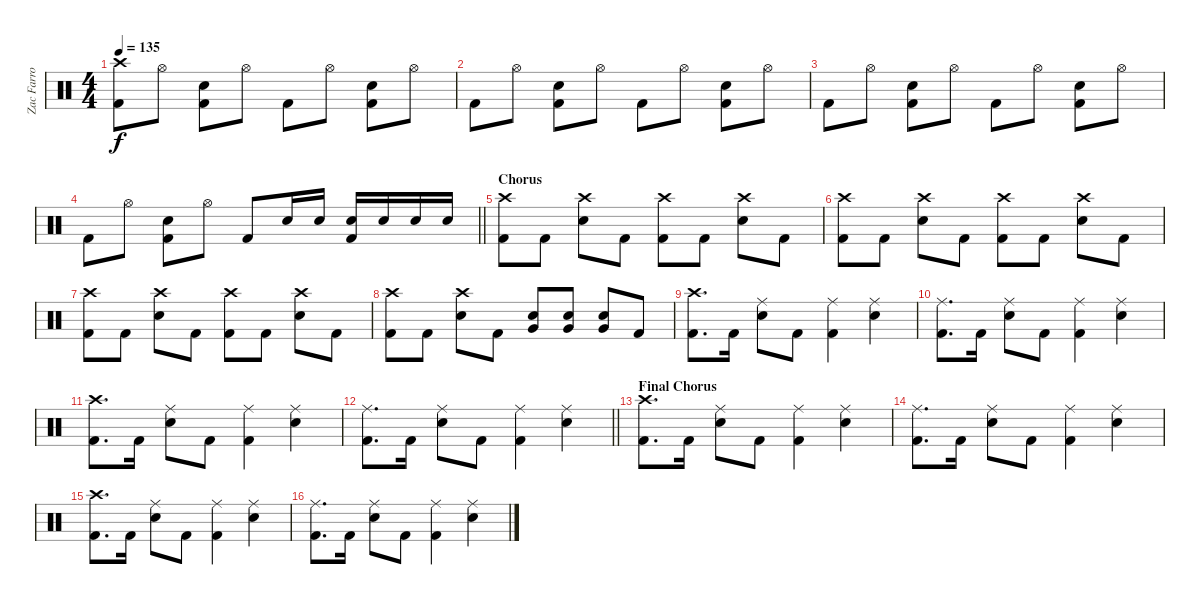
\track ("Zac Farro (Percussion)" "Zac Farro ") {instrument percussion}
\staff {score}
\articulation defaults
\ts (4 4)
\tempo 135
\clef neutral
\ks c
("Crash high (hit)" "Kick (hit) 2").8{dy f} "Hi-Hat (open)".8 ("Snare (hit) 2" "Kick (hit) 2").8 "Hi-Hat (open)".8 "Kick (hit) 2".8 "Hi-Hat (open)".8 ("Snare (hit) 2" "Kick (hit) 2").8 "Hi-Hat (open)".8 |
"Kick (hit) 2".8 "Hi-Hat (open)".8 ("Snare (hit) 2" "Kick (hit) 2").8 "Hi-Hat (open)".8 "Kick (hit) 2".8 "Hi-Hat (open)".8 ("Snare (hit) 2" "Kick (hit) 2").8 "Hi-Hat (open)".8 |
"Kick (hit) 2".8 "Hi-Hat (open)".8 ("Snare (hit) 2" "Kick (hit) 2").8 "Hi-Hat (open)".8 "Kick (hit) 2".8 "Hi-Hat (open)".8 ("Snare (hit) 2" "Kick (hit) 2").8 "Hi-Hat (open)".8 |
\barLineRight lightlight "Kick (hit) 2".8 "Hi-Hat (open)".8
("Snare (hit) 2" "Kick (hit) 2").8 "Hi-Hat (open)".8 "Kick (hit) 2".8 "Snare (hit) 2".16 "Snare (hit) 2".16 ("Snare (hit) 2" "Kick (hit) 2").16 "Snare (hit) 2".16 "Snare (hit) 2".16 "Snare (hit) 2".16 |
\section ("" "Chorus")
("Crash high (hit)" "Kick (hit) 2").8 "Kick (hit) 2".8 ("Crash high (hit)" "Snare (hit) 2").8 "Kick (hit) 2".8 ("Crash high (hit)" "Kick (hit) 2").8 "Kick (hit) 2".8 ("Crash high (hit)" "Snare (hit) 2").8 "Kick (hit) 2".8 |
("Crash high (hit)" "Kick (hit) 2").8 "Kick (hit) 2".8 ("Crash high (hit)" "Snare (hit) 2").8 "Kick (hit) 2".8 ("Crash high (hit)" "Kick (hit) 2").8 "Kick (hit) 2".8 ("Crash high (hit)" "Snare (hit) 2").8 "Kick (hit) 2".8 |
("Crash high (hit)" "Kick (hit) 2").8 "Kick (hit) 2".8 ("Crash high (hit)" "Snare (hit) 2").8 "Kick (hit) 2".8 ("Crash high (hit)" "Kick (hit) 2").8 "Kick (hit) 2".8 ("Crash high (hit)" "Snare (hit) 2").8 "Kick (hit) 2".8 |
("Crash high (hit)" "Kick (hit) 2").8 "Kick (hit) 2".8 ("Crash high (hit)" "Snare (hit) 2").8 "Kick (hit) 2".8 ("Snare (hit) 2" "Very Low Tom (hit)").8 ("Snare (hit) 2" "Very Low Tom (hit)").8 ("Snare (hit) 2" "Very Low Tom (hit)").8 "Kick (hit) 2".8 |
("Crash high (hit)" "Kick (hit) 2").8{d} "Kick (hit) 2".16 ("Ride (middle)" "Snare (hit) 2").8 "Kick (hit) 2".8 ("Ride (middle)" "Kick (hit) 2").4 ("Ride (middle)" "Snare (hit) 2").4 |
("Ride (middle)" "Kick (hit) 2").8{d} "Kick (hit) 2".16 ("Ride (middle)" "Snare (hit) 2").8 "Kick (hit) 2".8 ("Ride (middle)" "Kick (hit) 2").4 ("Ride (middle)" "Snare (hit) 2").4 |
("Crash high (hit)" "Kick (hit) 2").8{d} "Kick (hit) 2".16 ("Ride (middle)" "Snare (hit) 2").8 "Kick (hit) 2".8 ("Ride (middle)" "Kick (hit) 2").4 ("Ride (middle)" "Snare (hit) 2").4 |
\barLineRight lightlight
("Ride (middle)" "Kick (hit) 2").8{d} "Kick (hit) 2".16 ("Ride (middle)" "Snare (hit) 2").8 "Kick (hit) 2".8 ("Ride (middle)" "Kick (hit) 2").4 ("Ride (middle)" "Snare (hit) 2").4 |
\section ("" "Final Chorus")
("Crash high (hit)" "Kick (hit) 2").8{d} "Kick (hit) 2".16 ("Ride (middle)" "Snare (hit) 2").8 "Kick (hit) 2".8 ("Ride (middle)" "Kick (hit) 2").4 ("Ride (middle)" "Snare (hit) 2").4 |
("Ride (middle)" "Kick (hit) 2").8{d} "Kick (hit) 2".16 ("Ride (middle)" "Snare (hit) 2").8 "Kick (hit) 2".8 ("Ride (middle)" "Kick (hit) 2").4 ("Ride (middle)" "Snare (hit) 2").4 |
("Crash high (hit)" "Kick (hit) 2").8{d} "Kick (hit) 2".16 ("Ride (middle)" "Snare (hit) 2").8 "Kick (hit) 2".8 ("Ride (middle)" "Kick (hit) 2").4 ("Ride (middle)" "Snare (hit) 2").4 |
("Ride (middle)" "Kick (hit) 2").8{d} "Kick (hit) 2".16 ("Ride (middle)" "Snare (hit) 2").8 "Kick (hit) 2".8 ("Ride (middle)" "Kick (hit) 2").4 ("Ride (middle)" "Snare (hit) 2").4
